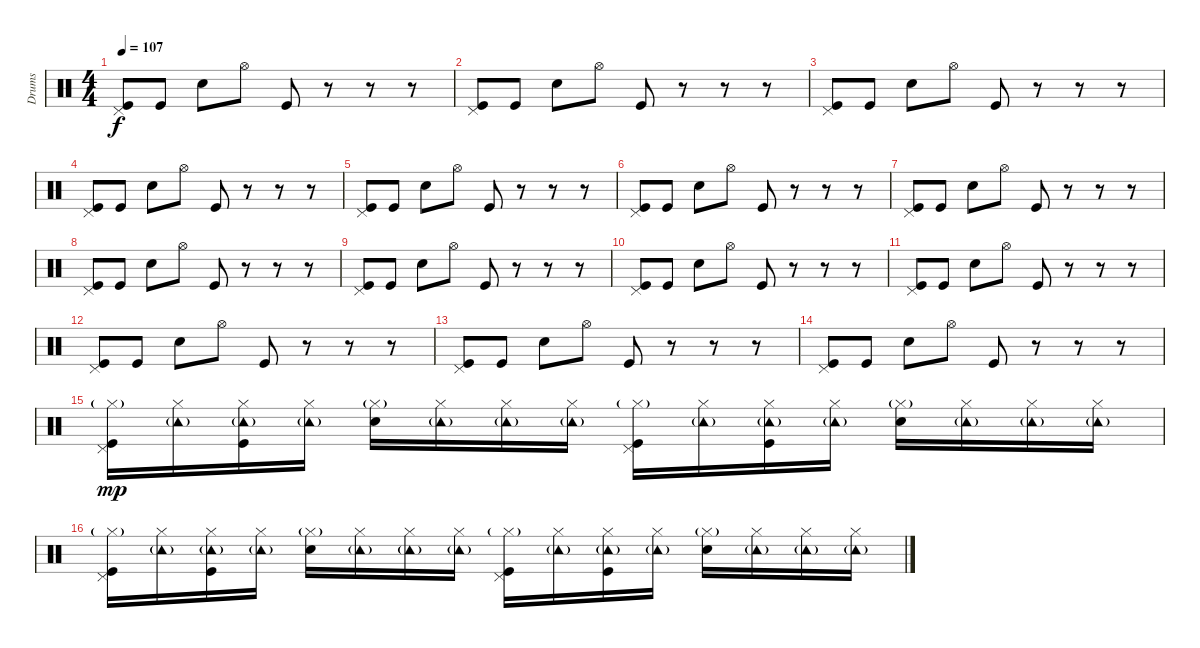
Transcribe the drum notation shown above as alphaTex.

\track ("Drums" "Drums") {instrument percussion}
\staff {score}
\articulation defaults
\ts (4 4)
\tempo 107
\clef neutral
\ks c
("Pedal Hi-Hat (hit)" "Kick (hit)").8{dy f} "Kick (hit)".8 "Electric Snare (hit)".8 "Hi-Hat (open)".8 "Kick (hit)".8 r.8 r.8 r.8 |
("Pedal Hi-Hat (hit)" "Kick (hit)").8 "Kick (hit)".8 "Electric Snare (hit)".8 "Hi-Hat (open)".8 "Kick (hit)".8 r.8 r.8 r.8 |
("Pedal Hi-Hat (hit)" "Kick (hit)").8 "Kick (hit)".8 "Electric Snare (hit)".8 "Hi-Hat (open)".8 "Kick (hit)".8 r.8 r.8 r.8 |
("Pedal Hi-Hat (hit)" "Kick (hit)").8 "Kick (hit)".8 "Electric Snare (hit)".8 "Hi-Hat (open)".8 "Kick (hit)".8 r.8 r.8 r.8 |
("Pedal Hi-Hat (hit)" "Kick (hit)").8 "Kick (hit)".8 "Electric Snare (hit)".8 "Hi-Hat (open)".8 "Kick (hit)".8 r.8 r.8 r.8 |
("Pedal Hi-Hat (hit)" "Kick (hit)").8 "Kick (hit)".8 "Electric Snare (hit)".8 "Hi-Hat (open)".8 "Kick (hit)".8 r.8 r.8 r.8 |
("Pedal Hi-Hat (hit)" "Kick (hit)").8 "Kick (hit)".8 "Electric Snare (hit)".8 "Hi-Hat (open)".8 "Kick (hit)".8 r.8 r.8 r.8 |
("Pedal Hi-Hat (hit)" "Kick (hit)").8 "Kick (hit)".8 "Electric Snare (hit)".8 "Hi-Hat (open)".8 "Kick (hit)".8 r.8 r.8 r.8 |
("Pedal Hi-Hat (hit)" "Kick (hit)").8 "Kick (hit)".8 "Electric Snare (hit)".8 "Hi-Hat (open)".8 "Kick (hit)".8 r.8 r.8 r.8 |
("Pedal Hi-Hat (hit)" "Kick (hit)").8 "Kick (hit)".8 "Electric Snare (hit)".8 "Hi-Hat (open)".8 "Kick (hit)".8 r.8 r.8 r.8 |
("Pedal Hi-Hat (hit)" "Kick (hit)").8 "Kick (hit)".8 "Electric Snare (hit)".8 "Hi-Hat (open)".8 "Kick (hit)".8 r.8 r.8 r.8 |
("Pedal Hi-Hat (hit)" "Kick (hit)").8 "Kick (hit)".8 "Electric Snare (hit)".8 "Hi-Hat (open)".8 "Kick (hit)".8 r.8 r.8 r.8 |
("Pedal Hi-Hat (hit)" "Kick (hit)").8 "Kick (hit)".8 "Electric Snare (hit)".8 "Hi-Hat (open)".8 "Kick (hit)".8 r.8 r.8 r.8 |
("Pedal Hi-Hat (hit)" "Kick (hit)").8 "Kick (hit)".8 "Electric Snare (hit)".8 "Hi-Hat (open)".8 "Kick (hit)".8 r.8 r.8 r.8 |
\section ("" "")
("Hi-Hat (closed)"{g} "Pedal Hi-Hat (hit)" "Kick (hit)").16{dy mp volume 11 balance 13} ("Hi-Hat (closed)" "Tambourine (hit)"{g}).16 ("Hi-Hat (closed)" "Tambourine (hit)"{g} "Kick (hit)").16 ("Hi-Hat (closed)" "Tambourine (hit)"{g}).16 ("Hi-Hat (closed)"{g} "Electric Snare (hit)").16 ("Hi-Hat (closed)" "Tambourine (hit)"{g}).16 ("Hi-Hat (closed)" "Tambourine (hit)"{g}).16 ("Hi-Hat (closed)" "Tambourine (hit)"{g}).16 ("Hi-Hat (closed)"{g} "Pedal Hi-Hat (hit)" "Kick (hit)").16 ("Hi-Hat (closed)" "Tambourine (hit)"{g}).16 ("Hi-Hat (closed)" "Tambourine (hit)"{g} "Kick (hit)").16 ("Hi-Hat (closed)" "Tambourine (hit)"{g}).16 ("Hi-Hat (closed)"{g} "Electric Snare (hit)").16 ("Hi-Hat (closed)" "Tambourine (hit)"{g}).16 ("Hi-Hat (closed)" "Tambourine (hit)"{g}).16 ("Hi-Hat (closed)" "Tambourine (hit)"{g}).16 |
("Hi-Hat (closed)"{g} "Pedal Hi-Hat (hit)" "Kick (hit)").16 ("Hi-Hat (closed)" "Tambourine (hit)"{g}).16 ("Hi-Hat (closed)" "Tambourine (hit)"{g} "Kick (hit)").16 ("Hi-Hat (closed)" "Tambourine (hit)"{g}).16 ("Hi-Hat (closed)"{g} "Electric Snare (hit)").16 ("Hi-Hat (closed)" "Tambourine (hit)"{g}).16 ("Hi-Hat (closed)" "Tambourine (hit)"{g}).16 ("Hi-Hat (closed)" "Tambourine (hit)"{g}).16 ("Hi-Hat (closed)"{g} "Pedal Hi-Hat (hit)" "Kick (hit)").16 ("Hi-Hat (closed)" "Tambourine (hit)"{g}).16 ("Hi-Hat (closed)" "Tambourine (hit)"{g} "Kick (hit)").16 ("Hi-Hat (closed)" "Tambourine (hit)"{g}).16 ("Hi-Hat (closed)"{g} "Electric Snare (hit)").16 ("Hi-Hat (closed)" "Tambourine (hit)"{g}).16 ("Hi-Hat (closed)" "Tambourine (hit)"{g}).16 ("Hi-Hat (closed)" "Tambourine (hit)"{g}).16
